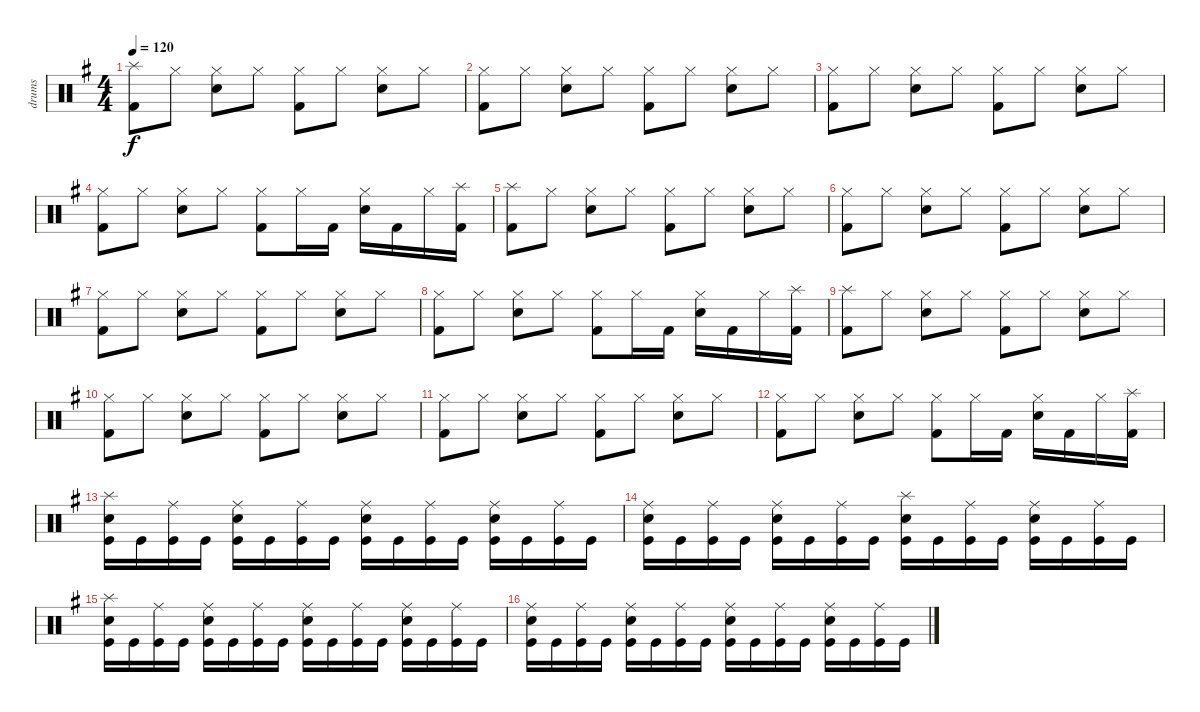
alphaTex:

\track ("drums" "drums") {instrument percussion}
\staff {score}
\articulation defaults
\ts (4 4)
\tempo 120
\clef neutral
\ks eminor
("Kick (hit) 2" "Splash (hit)").8{dy f} "Hi-Hat (closed)".8 ("Electric Snare (hit)" "Hi-Hat (closed)").8 "Hi-Hat (closed)".8 ("Kick (hit) 2" "Hi-Hat (closed)").8 "Hi-Hat (closed)".8 ("Electric Snare (hit)" "Hi-Hat (closed)").8 "Hi-Hat (closed)".8 |
("Kick (hit) 2" "Hi-Hat (closed)").8 "Hi-Hat (closed)".8 ("Electric Snare (hit)" "Hi-Hat (closed)").8 "Hi-Hat (closed)".8 ("Kick (hit) 2" "Hi-Hat (closed)").8 "Hi-Hat (closed)".8 ("Electric Snare (hit)" "Hi-Hat (closed)").8 "Hi-Hat (closed)".8 |
("Kick (hit) 2" "Hi-Hat (closed)").8 "Hi-Hat (closed)".8 ("Electric Snare (hit)" "Hi-Hat (closed)").8 "Hi-Hat (closed)".8 ("Kick (hit) 2" "Hi-Hat (closed)").8 "Hi-Hat (closed)".8 ("Electric Snare (hit)" "Hi-Hat (closed)").8 "Hi-Hat (closed)".8 |
("Kick (hit) 2" "Hi-Hat (closed)").8 "Hi-Hat (closed)".8 ("Electric Snare (hit)" "Hi-Hat (closed)").8 "Hi-Hat (closed)".8 ("Kick (hit) 2" "Hi-Hat (closed)").8 "Hi-Hat (closed)".16 "Kick (hit) 2".16 ("Electric Snare (hit)" "Hi-Hat (closed)").16 "Kick (hit) 2".16 "Hi-Hat (closed)".16 ("Kick (hit) 2" "Splash (hit)").16 |
("Kick (hit) 2" "Splash (hit)").8 "Hi-Hat (closed)".8 ("Electric Snare (hit)" "Hi-Hat (closed)").8 "Hi-Hat (closed)".8 ("Kick (hit) 2" "Hi-Hat (closed)").8 "Hi-Hat (closed)".8 ("Electric Snare (hit)" "Hi-Hat (closed)").8 "Hi-Hat (closed)".8 |
("Kick (hit) 2" "Hi-Hat (closed)").8 "Hi-Hat (closed)".8 ("Electric Snare (hit)" "Hi-Hat (closed)").8 "Hi-Hat (closed)".8 ("Kick (hit) 2" "Hi-Hat (closed)").8 "Hi-Hat (closed)".8 ("Electric Snare (hit)" "Hi-Hat (closed)").8 "Hi-Hat (closed)".8 |
("Kick (hit) 2" "Hi-Hat (closed)").8 "Hi-Hat (closed)".8 ("Electric Snare (hit)" "Hi-Hat (closed)").8 "Hi-Hat (closed)".8 ("Kick (hit) 2" "Hi-Hat (closed)").8 "Hi-Hat (closed)".8 ("Electric Snare (hit)" "Hi-Hat (closed)").8 "Hi-Hat (closed)".8 |
("Kick (hit) 2" "Hi-Hat (closed)").8 "Hi-Hat (closed)".8 ("Electric Snare (hit)" "Hi-Hat (closed)").8 "Hi-Hat (closed)".8 ("Kick (hit) 2" "Hi-Hat (closed)").8 "Hi-Hat (closed)".16 "Kick (hit) 2".16 ("Electric Snare (hit)" "Hi-Hat (closed)").16 "Kick (hit) 2".16 "Hi-Hat (closed)".16 ("Kick (hit) 2" "Splash (hit)").16 |
("Kick (hit) 2" "Splash (hit)").8 "Hi-Hat (closed)".8 ("Electric Snare (hit)" "Hi-Hat (closed)").8 "Hi-Hat (closed)".8 ("Kick (hit) 2" "Hi-Hat (closed)").8 "Hi-Hat (closed)".8 ("Electric Snare (hit)" "Hi-Hat (closed)").8 "Hi-Hat (closed)".8 |
("Kick (hit) 2" "Hi-Hat (closed)").8 "Hi-Hat (closed)".8 ("Electric Snare (hit)" "Hi-Hat (closed)").8 "Hi-Hat (closed)".8 ("Kick (hit) 2" "Hi-Hat (closed)").8 "Hi-Hat (closed)".8 ("Electric Snare (hit)" "Hi-Hat (closed)").8 "Hi-Hat (closed)".8 |
("Kick (hit) 2" "Hi-Hat (closed)").8 "Hi-Hat (closed)".8 ("Electric Snare (hit)" "Hi-Hat (closed)").8 "Hi-Hat (closed)".8 ("Kick (hit) 2" "Hi-Hat (closed)").8 "Hi-Hat (closed)".8 ("Electric Snare (hit)" "Hi-Hat (closed)").8 "Hi-Hat (closed)".8 |
("Kick (hit) 2" "Hi-Hat (closed)").8 "Hi-Hat (closed)".8 ("Electric Snare (hit)" "Hi-Hat (closed)").8 "Hi-Hat (closed)".8 ("Kick (hit) 2" "Hi-Hat (closed)").8 "Hi-Hat (closed)".16 "Kick (hit) 2".16 ("Electric Snare (hit)" "Hi-Hat (closed)").16 "Kick (hit) 2".16 "Hi-Hat (closed)".16 ("Kick (hit) 2" "Splash (hit)").16 |
("Kick (hit)" "Electric Snare (hit)" "Splash (hit)").16 "Kick (hit)".16 ("Kick (hit)" "Ride (middle)").16 "Kick (hit)".16 ("Kick (hit)" "Electric Snare (hit)" "Ride (middle)").16 "Kick (hit)".16 ("Kick (hit)" "Ride (middle)").16 "Kick (hit)".16 ("Kick (hit)" "Electric Snare (hit)" "Ride (middle)").16 "Kick (hit)".16 ("Kick (hit)" "Ride (middle)").16 "Kick (hit)".16 ("Kick (hit)" "Electric Snare (hit)" "Ride (middle)").16 "Kick (hit)".16 ("Kick (hit)" "Ride (middle)").16 "Kick (hit)".16 |
("Kick (hit)" "Electric Snare (hit)" "Ride (middle)").16 "Kick (hit)".16 ("Kick (hit)" "Ride (middle)").16 "Kick (hit)".16 ("Kick (hit)" "Electric Snare (hit)" "Ride (middle)").16 "Kick (hit)".16 ("Kick (hit)" "Ride (middle)").16 "Kick (hit)".16 ("Kick (hit)" "Electric Snare (hit)" "Splash (hit)").16 "Kick (hit)".16 ("Kick (hit)" "Ride (middle)").16 "Kick (hit)".16 ("Kick (hit)" "Electric Snare (hit)" "Ride (middle)").16 "Kick (hit)".16 ("Kick (hit)" "Ride (middle)").16 "Kick (hit)".16 |
("Kick (hit)" "Electric Snare (hit)" "Splash (hit)").16 "Kick (hit)".16 ("Kick (hit)" "Ride (middle)").16 "Kick (hit)".16 ("Kick (hit)" "Electric Snare (hit)" "Ride (middle)").16 "Kick (hit)".16 ("Kick (hit)" "Ride (middle)").16 "Kick (hit)".16 ("Kick (hit)" "Electric Snare (hit)" "Ride (middle)").16 "Kick (hit)".16 ("Kick (hit)" "Ride (middle)").16 "Kick (hit)".16 ("Kick (hit)" "Electric Snare (hit)" "Ride (middle)").16 "Kick (hit)".16 ("Kick (hit)" "Ride (middle)").16 "Kick (hit)".16 |
("Kick (hit)" "Electric Snare (hit)" "Ride (middle)").16 "Kick (hit)".16 ("Kick (hit)" "Ride (middle)").16 "Kick (hit)".16 ("Kick (hit)" "Electric Snare (hit)" "Ride (middle)").16 "Kick (hit)".16 ("Kick (hit)" "Ride (middle)").16 "Kick (hit)".16 ("Kick (hit)" "Electric Snare (hit)" "Ride (middle)").16 "Kick (hit)".16 ("Kick (hit)" "Ride (middle)").16 "Kick (hit)".16 ("Kick (hit)" "Electric Snare (hit)" "Ride (middle)").16 "Kick (hit)".16 ("Kick (hit)" "Ride (middle)").16 "Kick (hit)".16
